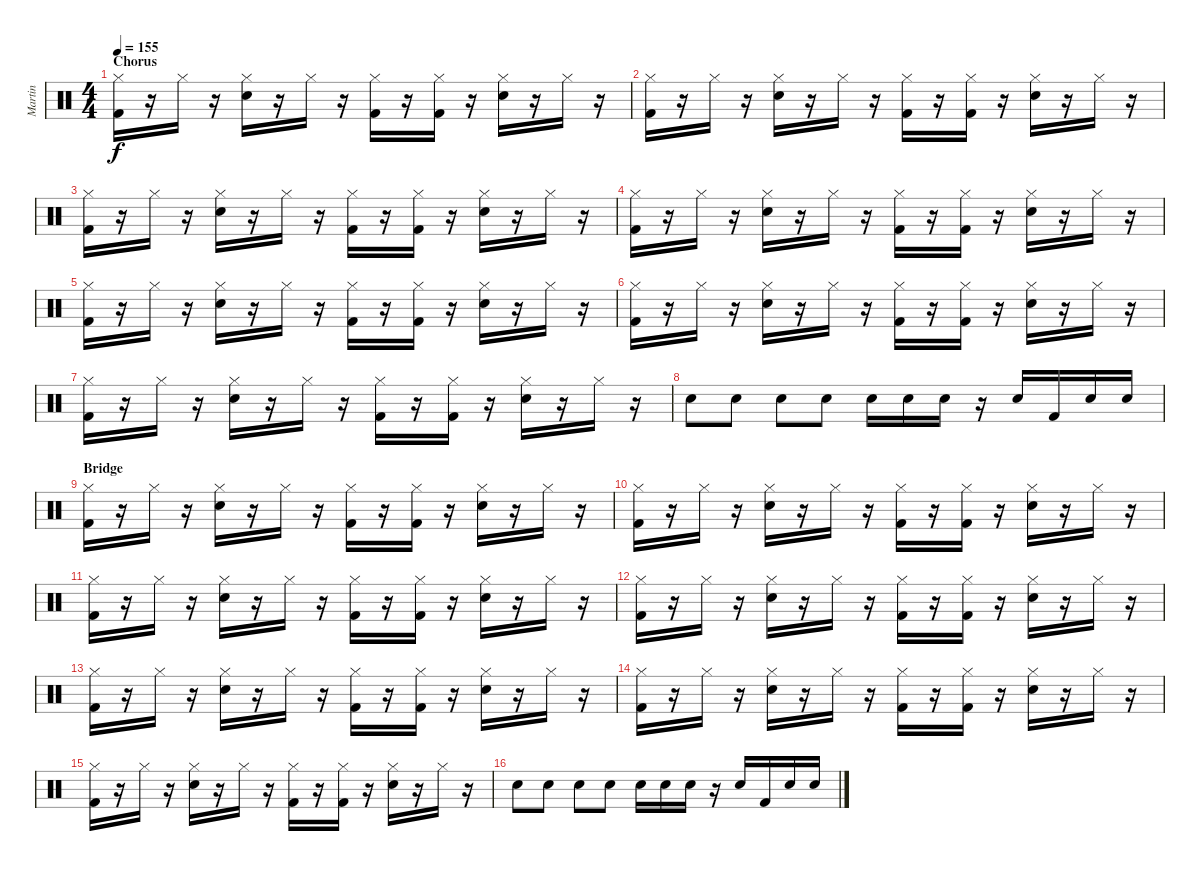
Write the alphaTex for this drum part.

\track ("Martin" "Martin") {instrument percussion}
\staff {score}
\articulation defaults
\ts (4 4)
\section ("" "Chorus")
\tempo 155
\clef neutral
\ks c
("Kick (hit) 2" "Hi-Hat (closed)").16{dy f} r.16 "Hi-Hat (closed)".16 r.16 ("Electric Snare (hit)" "Hi-Hat (closed)").16 r.16 "Hi-Hat (closed)".16 r.16 ("Kick (hit) 2" "Hi-Hat (closed)").16 r.16 ("Kick (hit) 2" "Hi-Hat (closed)").16 r.16 ("Electric Snare (hit)" "Hi-Hat (closed)").16 r.16 "Hi-Hat (closed)".16 r.16 |
("Kick (hit) 2" "Hi-Hat (closed)").16 r.16 "Hi-Hat (closed)".16 r.16 ("Electric Snare (hit)" "Hi-Hat (closed)").16 r.16 "Hi-Hat (closed)".16 r.16 ("Kick (hit) 2" "Hi-Hat (closed)").16 r.16 ("Kick (hit) 2" "Hi-Hat (closed)").16 r.16 ("Electric Snare (hit)" "Hi-Hat (closed)").16 r.16 "Hi-Hat (closed)".16 r.16 |
("Kick (hit) 2" "Hi-Hat (closed)").16 r.16 "Hi-Hat (closed)".16 r.16 ("Electric Snare (hit)" "Hi-Hat (closed)").16 r.16 "Hi-Hat (closed)".16 r.16 ("Kick (hit) 2" "Hi-Hat (closed)").16 r.16 ("Kick (hit) 2" "Hi-Hat (closed)").16 r.16 ("Electric Snare (hit)" "Hi-Hat (closed)").16 r.16 "Hi-Hat (closed)".16 r.16 |
("Kick (hit) 2" "Hi-Hat (closed)").16 r.16 "Hi-Hat (closed)".16 r.16 ("Electric Snare (hit)" "Hi-Hat (closed)").16 r.16 "Hi-Hat (closed)".16 r.16 ("Kick (hit) 2" "Hi-Hat (closed)").16 r.16 ("Kick (hit) 2" "Hi-Hat (closed)").16 r.16 ("Electric Snare (hit)" "Hi-Hat (closed)").16 r.16 "Hi-Hat (closed)".16 r.16 |
("Kick (hit) 2" "Hi-Hat (closed)").16 r.16 "Hi-Hat (closed)".16 r.16 ("Electric Snare (hit)" "Hi-Hat (closed)").16 r.16 "Hi-Hat (closed)".16 r.16 ("Kick (hit) 2" "Hi-Hat (closed)").16 r.16 ("Kick (hit) 2" "Hi-Hat (closed)").16 r.16 ("Electric Snare (hit)" "Hi-Hat (closed)").16 r.16 "Hi-Hat (closed)".16 r.16 |
("Kick (hit) 2" "Hi-Hat (closed)").16 r.16 "Hi-Hat (closed)".16 r.16 ("Electric Snare (hit)" "Hi-Hat (closed)").16 r.16 "Hi-Hat (closed)".16 r.16 ("Kick (hit) 2" "Hi-Hat (closed)").16 r.16 ("Kick (hit) 2" "Hi-Hat (closed)").16 r.16 ("Electric Snare (hit)" "Hi-Hat (closed)").16 r.16 "Hi-Hat (closed)".16 r.16 |
("Kick (hit) 2" "Hi-Hat (closed)").16 r.16 "Hi-Hat (closed)".16 r.16 ("Electric Snare (hit)" "Hi-Hat (closed)").16 r.16 "Hi-Hat (closed)".16 r.16 ("Kick (hit) 2" "Hi-Hat (closed)").16 r.16 ("Kick (hit) 2" "Hi-Hat (closed)").16 r.16 ("Electric Snare (hit)" "Hi-Hat (closed)").16 r.16 "Hi-Hat (closed)".16 r.16 |
"Electric Snare (hit)".8 "Electric Snare (hit)".8 "Electric Snare (hit)".8 "Electric Snare (hit)".8 "Electric Snare (hit)".16 "Electric Snare (hit)".16 "Electric Snare (hit)".16 r.16 "Electric Snare (hit)".16 "Kick (hit) 2".16 "Electric Snare (hit)".16 "Electric Snare (hit)".16 |
\section ("" "Bridge")
("Kick (hit) 2" "Hi-Hat (closed)").16 r.16 "Hi-Hat (closed)".16 r.16 ("Electric Snare (hit)" "Hi-Hat (closed)").16 r.16 "Hi-Hat (closed)".16 r.16 ("Kick (hit) 2" "Hi-Hat (closed)").16 r.16 ("Kick (hit) 2" "Hi-Hat (closed)").16 r.16 ("Electric Snare (hit)" "Hi-Hat (closed)").16 r.16 "Hi-Hat (closed)".16 r.16 |
("Kick (hit) 2" "Hi-Hat (closed)").16 r.16 "Hi-Hat (closed)".16 r.16 ("Electric Snare (hit)" "Hi-Hat (closed)").16 r.16 "Hi-Hat (closed)".16 r.16 ("Kick (hit) 2" "Hi-Hat (closed)").16 r.16 ("Kick (hit) 2" "Hi-Hat (closed)").16 r.16 ("Electric Snare (hit)" "Hi-Hat (closed)").16 r.16 "Hi-Hat (closed)".16 r.16 |
("Kick (hit) 2" "Hi-Hat (closed)").16 r.16 "Hi-Hat (closed)".16 r.16 ("Electric Snare (hit)" "Hi-Hat (closed)").16 r.16 "Hi-Hat (closed)".16 r.16 ("Kick (hit) 2" "Hi-Hat (closed)").16 r.16 ("Kick (hit) 2" "Hi-Hat (closed)").16 r.16 ("Electric Snare (hit)" "Hi-Hat (closed)").16 r.16 "Hi-Hat (closed)".16 r.16 |
("Kick (hit) 2" "Hi-Hat (closed)").16 r.16 "Hi-Hat (closed)".16 r.16 ("Electric Snare (hit)" "Hi-Hat (closed)").16 r.16 "Hi-Hat (closed)".16 r.16 ("Kick (hit) 2" "Hi-Hat (closed)").16 r.16 ("Kick (hit) 2" "Hi-Hat (closed)").16 r.16 ("Electric Snare (hit)" "Hi-Hat (closed)").16 r.16 "Hi-Hat (closed)".16 r.16 |
("Kick (hit) 2" "Hi-Hat (closed)").16 r.16 "Hi-Hat (closed)".16 r.16 ("Electric Snare (hit)" "Hi-Hat (closed)").16 r.16 "Hi-Hat (closed)".16 r.16 ("Kick (hit) 2" "Hi-Hat (closed)").16 r.16 ("Kick (hit) 2" "Hi-Hat (closed)").16 r.16 ("Electric Snare (hit)" "Hi-Hat (closed)").16 r.16 "Hi-Hat (closed)".16 r.16 |
("Kick (hit) 2" "Hi-Hat (closed)").16 r.16 "Hi-Hat (closed)".16 r.16 ("Electric Snare (hit)" "Hi-Hat (closed)").16 r.16 "Hi-Hat (closed)".16 r.16 ("Kick (hit) 2" "Hi-Hat (closed)").16 r.16 ("Kick (hit) 2" "Hi-Hat (closed)").16 r.16 ("Electric Snare (hit)" "Hi-Hat (closed)").16 r.16 "Hi-Hat (closed)".16 r.16 |
("Kick (hit) 2" "Hi-Hat (closed)").16 r.16 "Hi-Hat (closed)".16 r.16 ("Electric Snare (hit)" "Hi-Hat (closed)").16 r.16 "Hi-Hat (closed)".16 r.16 ("Kick (hit) 2" "Hi-Hat (closed)").16 r.16 ("Kick (hit) 2" "Hi-Hat (closed)").16 r.16 ("Electric Snare (hit)" "Hi-Hat (closed)").16 r.16 "Hi-Hat (closed)".16 r.16 |
"Electric Snare (hit)".8 "Electric Snare (hit)".8 "Electric Snare (hit)".8 "Electric Snare (hit)".8 "Electric Snare (hit)".16 "Electric Snare (hit)".16 "Electric Snare (hit)".16 r.16 "Electric Snare (hit)".16 "Kick (hit) 2".16 "Electric Snare (hit)".16 "Electric Snare (hit)".16
